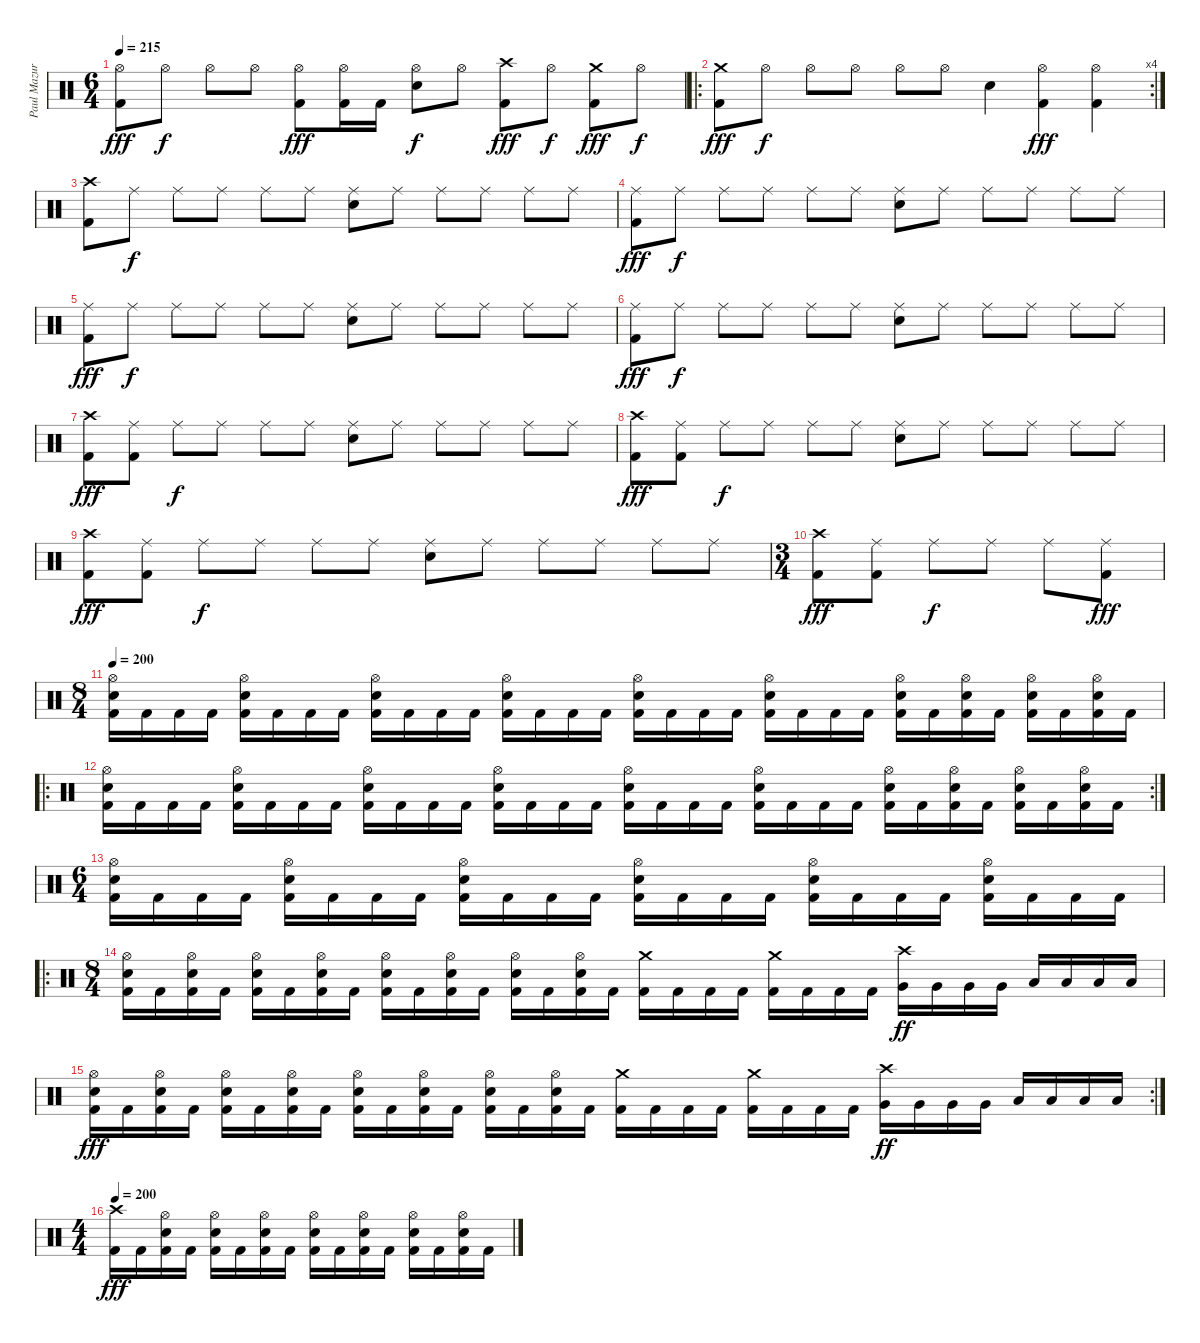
\track ("Paul Mazurkiewicz" "Paul Mazur") {instrument percussion}
\staff {score}
\articulation defaults
\ts (6 4)
\tempo 215
\clef neutral
\ks c
("Hi-Hat (open)" "Kick (hit) 2").8{dy fff} "Hi-Hat (open)".8{dy f} "Hi-Hat (open)".8 "Hi-Hat (open)".8 ("Hi-Hat (open)" "Kick (hit) 2").8{dy fff} ("Hi-Hat (open)" "Kick (hit) 2").16 "Kick (hit) 2".16 ("Hi-Hat (open)" "Electric Snare (hit)").8{dy f} "Hi-Hat (open)".8 ("Crash high (hit)" "Kick (hit) 2").8{dy fff} "Hi-Hat (open)".8{dy f} ("Crash medium (hit)" "Kick (hit) 2").8{dy fff} "Hi-Hat (open)".8{dy f} |
\ro
\rc 4
("Crash medium (hit)" "Kick (hit) 2").8{dy fff} "Hi-Hat (open)".8{dy f} "Hi-Hat (open)".8 "Hi-Hat (open)".8 "Hi-Hat (open)".8 "Hi-Hat (open)".8 "Electric Snare (hit)".4 ("Hi-Hat (open)" "Kick (hit) 2").4{dy fff} ("Hi-Hat (open)" "Kick (hit) 2").4 |
("Crash high (hit)" "Kick (hit) 2").8 "Ride (middle)".8{dy f} "Ride (middle)".8 "Ride (middle)".8 "Ride (middle)".8 "Ride (middle)".8 ("Ride (middle)" "Electric Snare (hit)").8 "Ride (middle)".8 "Ride (middle)".8 "Ride (middle)".8 "Ride (middle)".8 "Ride (middle)".8 |
("Ride (middle)" "Kick (hit) 2").8{dy fff} "Ride (middle)".8{dy f} "Ride (middle)".8 "Ride (middle)".8 "Ride (middle)".8 "Ride (middle)".8 ("Ride (middle)" "Electric Snare (hit)").8 "Ride (middle)".8 "Ride (middle)".8 "Ride (middle)".8 "Ride (middle)".8 "Ride (middle)".8 |
("Ride (middle)" "Kick (hit) 2").8{dy fff} "Ride (middle)".8{dy f} "Ride (middle)".8 "Ride (middle)".8 "Ride (middle)".8 "Ride (middle)".8 ("Ride (middle)" "Electric Snare (hit)").8 "Ride (middle)".8 "Ride (middle)".8 "Ride (middle)".8 "Ride (middle)".8 "Ride (middle)".8 |
("Ride (middle)" "Kick (hit) 2").8{dy fff} "Ride (middle)".8{dy f} "Ride (middle)".8 "Ride (middle)".8 "Ride (middle)".8 "Ride (middle)".8 ("Ride (middle)" "Electric Snare (hit)").8 "Ride (middle)".8 "Ride (middle)".8 "Ride (middle)".8 "Ride (middle)".8 "Ride (middle)".8 |
("Crash high (hit)" "Kick (hit) 2").8{dy fff} ("Ride (middle)" "Kick (hit) 2").8 "Ride (middle)".8{dy f} "Ride (middle)".8 "Ride (middle)".8 "Ride (middle)".8 ("Ride (middle)" "Electric Snare (hit)").8 "Ride (middle)".8 "Ride (middle)".8 "Ride (middle)".8 "Ride (middle)".8 "Ride (middle)".8 |
("Crash high (hit)" "Kick (hit) 2").8{dy fff} ("Ride (middle)" "Kick (hit) 2").8 "Ride (middle)".8{dy f} "Ride (middle)".8 "Ride (middle)".8 "Ride (middle)".8 ("Ride (middle)" "Electric Snare (hit)").8 "Ride (middle)".8 "Ride (middle)".8 "Ride (middle)".8 "Ride (middle)".8 "Ride (middle)".8 |
("Crash high (hit)" "Kick (hit) 2").8{dy fff} ("Ride (middle)" "Kick (hit) 2").8 "Ride (middle)".8{dy f} "Ride (middle)".8 "Ride (middle)".8 "Ride (middle)".8 ("Ride (middle)" "Electric Snare (hit)").8 "Ride (middle)".8 "Ride (middle)".8 "Ride (middle)".8 "Ride (middle)".8 "Ride (middle)".8 |
\ts (3 4)
("Crash high (hit)" "Kick (hit) 2").8{dy fff} ("Ride (middle)" "Kick (hit) 2").8 "Ride (middle)".8{dy f} "Ride (middle)".8 "Ride (middle)".8 ("Ride (middle)" "Kick (hit) 2").8{dy fff} |
\ts (8 4)
\tempo 200
("Hi-Hat (open)" "Electric Snare (hit)" "Kick (hit) 2").16 "Kick (hit) 2".16 "Kick (hit) 2".16 "Kick (hit) 2".16 ("Hi-Hat (open)" "Electric Snare (hit)" "Kick (hit) 2").16 "Kick (hit) 2".16 "Kick (hit) 2".16 "Kick (hit) 2".16 ("Hi-Hat (open)" "Electric Snare (hit)" "Kick (hit) 2").16 "Kick (hit) 2".16 "Kick (hit) 2".16 "Kick (hit) 2".16 ("Hi-Hat (open)" "Electric Snare (hit)" "Kick (hit) 2").16 "Kick (hit) 2".16 "Kick (hit) 2".16 "Kick (hit) 2".16 ("Hi-Hat (open)" "Electric Snare (hit)" "Kick (hit) 2").16 "Kick (hit) 2".16 "Kick (hit) 2".16 "Kick (hit) 2".16 ("Hi-Hat (open)" "Electric Snare (hit)" "Kick (hit) 2").16 "Kick (hit) 2".16 "Kick (hit) 2".16 "Kick (hit) 2".16 ("Hi-Hat (open)" "Electric Snare (hit)" "Kick (hit) 2").16 "Kick (hit) 2".16 ("Hi-Hat (open)" "Electric Snare (hit)" "Kick (hit) 2").16 "Kick (hit) 2".16 ("Hi-Hat (open)" "Electric Snare (hit)" "Kick (hit) 2").16 "Kick (hit) 2".16 ("Hi-Hat (open)" "Electric Snare (hit)" "Kick (hit) 2").16 "Kick (hit) 2".16 |
\ro
\rc 2
("Hi-Hat (open)" "Electric Snare (hit)" "Kick (hit) 2").16 "Kick (hit) 2".16 "Kick (hit) 2".16 "Kick (hit) 2".16 ("Hi-Hat (open)" "Electric Snare (hit)" "Kick (hit) 2").16 "Kick (hit) 2".16 "Kick (hit) 2".16 "Kick (hit) 2".16 ("Hi-Hat (open)" "Electric Snare (hit)" "Kick (hit) 2").16 "Kick (hit) 2".16 "Kick (hit) 2".16 "Kick (hit) 2".16 ("Hi-Hat (open)" "Electric Snare (hit)" "Kick (hit) 2").16 "Kick (hit) 2".16 "Kick (hit) 2".16 "Kick (hit) 2".16 ("Hi-Hat (open)" "Electric Snare (hit)" "Kick (hit) 2").16 "Kick (hit) 2".16 "Kick (hit) 2".16 "Kick (hit) 2".16 ("Hi-Hat (open)" "Electric Snare (hit)" "Kick (hit) 2").16 "Kick (hit) 2".16 "Kick (hit) 2".16 "Kick (hit) 2".16 ("Hi-Hat (open)" "Electric Snare (hit)" "Kick (hit) 2").16 "Kick (hit) 2".16 ("Hi-Hat (open)" "Electric Snare (hit)" "Kick (hit) 2").16 "Kick (hit) 2".16 ("Hi-Hat (open)" "Electric Snare (hit)" "Kick (hit) 2").16 "Kick (hit) 2".16 ("Hi-Hat (open)" "Electric Snare (hit)" "Kick (hit) 2").16 "Kick (hit) 2".16 |
\ts (6 4)
("Hi-Hat (open)" "Electric Snare (hit)" "Kick (hit) 2").16 "Kick (hit) 2".16 "Kick (hit) 2".16 "Kick (hit) 2".16 ("Hi-Hat (open)" "Electric Snare (hit)" "Kick (hit) 2").16 "Kick (hit) 2".16 "Kick (hit) 2".16 "Kick (hit) 2".16 ("Hi-Hat (open)" "Electric Snare (hit)" "Kick (hit) 2").16 "Kick (hit) 2".16 "Kick (hit) 2".16 "Kick (hit) 2".16 ("Hi-Hat (open)" "Electric Snare (hit)" "Kick (hit) 2").16 "Kick (hit) 2".16 "Kick (hit) 2".16 "Kick (hit) 2".16 ("Hi-Hat (open)" "Electric Snare (hit)" "Kick (hit) 2").16 "Kick (hit) 2".16 "Kick (hit) 2".16 "Kick (hit) 2".16 ("Hi-Hat (open)" "Electric Snare (hit)" "Kick (hit) 2").16 "Kick (hit) 2".16 "Kick (hit) 2".16 "Kick (hit) 2".16 |
\ro
\ts (8 4)
("Hi-Hat (open)" "Electric Snare (hit)" "Kick (hit) 2").16 "Kick (hit) 2".16 ("Hi-Hat (open)" "Electric Snare (hit)" "Kick (hit) 2").16 "Kick (hit) 2".16 ("Hi-Hat (open)" "Electric Snare (hit)" "Kick (hit) 2").16 "Kick (hit) 2".16 ("Hi-Hat (open)" "Electric Snare (hit)" "Kick (hit) 2").16 "Kick (hit) 2".16 ("Hi-Hat (open)" "Electric Snare (hit)" "Kick (hit) 2").16 "Kick (hit) 2".16 ("Hi-Hat (open)" "Electric Snare (hit)" "Kick (hit) 2").16 "Kick (hit) 2".16 ("Hi-Hat (open)" "Electric Snare (hit)" "Kick (hit) 2").16 "Kick (hit) 2".16 ("Hi-Hat (open)" "Electric Snare (hit)" "Kick (hit) 2").16 "Kick (hit) 2".16 ("Crash medium (hit)" "Kick (hit) 2").16 "Kick (hit) 2".16 "Kick (hit) 2".16 "Kick (hit) 2".16 ("Crash medium (hit)" "Kick (hit) 2").16 "Kick (hit) 2".16 "Kick (hit) 2".16 "Kick (hit) 2".16 ("Crash high (hit)" "Very Low Tom (hit)").16{dy ff} "Very Low Tom (hit)".16 "Very Low Tom (hit)".16 "Very Low Tom (hit)".16 "Low Floor Tom (hit)".16 "Low Floor Tom (hit)".16 "Low Floor Tom (hit)".16 "Low Floor Tom (hit)".16 |
\rc 2
("Hi-Hat (open)" "Electric Snare (hit)" "Kick (hit) 2").16{dy fff} "Kick (hit) 2".16 ("Hi-Hat (open)" "Electric Snare (hit)" "Kick (hit) 2").16 "Kick (hit) 2".16 ("Hi-Hat (open)" "Electric Snare (hit)" "Kick (hit) 2").16 "Kick (hit) 2".16 ("Hi-Hat (open)" "Electric Snare (hit)" "Kick (hit) 2").16 "Kick (hit) 2".16 ("Hi-Hat (open)" "Electric Snare (hit)" "Kick (hit) 2").16 "Kick (hit) 2".16 ("Hi-Hat (open)" "Electric Snare (hit)" "Kick (hit) 2").16 "Kick (hit) 2".16 ("Hi-Hat (open)" "Electric Snare (hit)" "Kick (hit) 2").16 "Kick (hit) 2".16 ("Hi-Hat (open)" "Electric Snare (hit)" "Kick (hit) 2").16 "Kick (hit) 2".16 ("Crash medium (hit)" "Kick (hit) 2").16 "Kick (hit) 2".16 "Kick (hit) 2".16 "Kick (hit) 2".16 ("Crash medium (hit)" "Kick (hit) 2").16 "Kick (hit) 2".16 "Kick (hit) 2".16 "Kick (hit) 2".16 ("Crash high (hit)" "Very Low Tom (hit)").16{dy ff} "Very Low Tom (hit)".16 "Very Low Tom (hit)".16 "Very Low Tom (hit)".16 "Low Floor Tom (hit)".16 "Low Floor Tom (hit)".16 "Low Floor Tom (hit)".16 "Low Floor Tom (hit)".16 |
\ts (4 4)
\tempo 200
("Crash high (hit)" "Kick (hit) 2").16{dy fff} "Kick (hit) 2".16 ("Hi-Hat (open)" "Electric Snare (hit)" "Kick (hit) 2").16 "Kick (hit) 2".16 ("Hi-Hat (open)" "Electric Snare (hit)" "Kick (hit) 2").16 "Kick (hit) 2".16 ("Hi-Hat (open)" "Electric Snare (hit)" "Kick (hit) 2").16 "Kick (hit) 2".16 ("Hi-Hat (open)" "Electric Snare (hit)" "Kick (hit) 2").16 "Kick (hit) 2".16 ("Hi-Hat (open)" "Electric Snare (hit)" "Kick (hit) 2").16 "Kick (hit) 2".16 ("Hi-Hat (open)" "Electric Snare (hit)" "Kick (hit) 2").16 "Kick (hit) 2".16 ("Hi-Hat (open)" "Electric Snare (hit)" "Kick (hit) 2").16 "Kick (hit) 2".16
